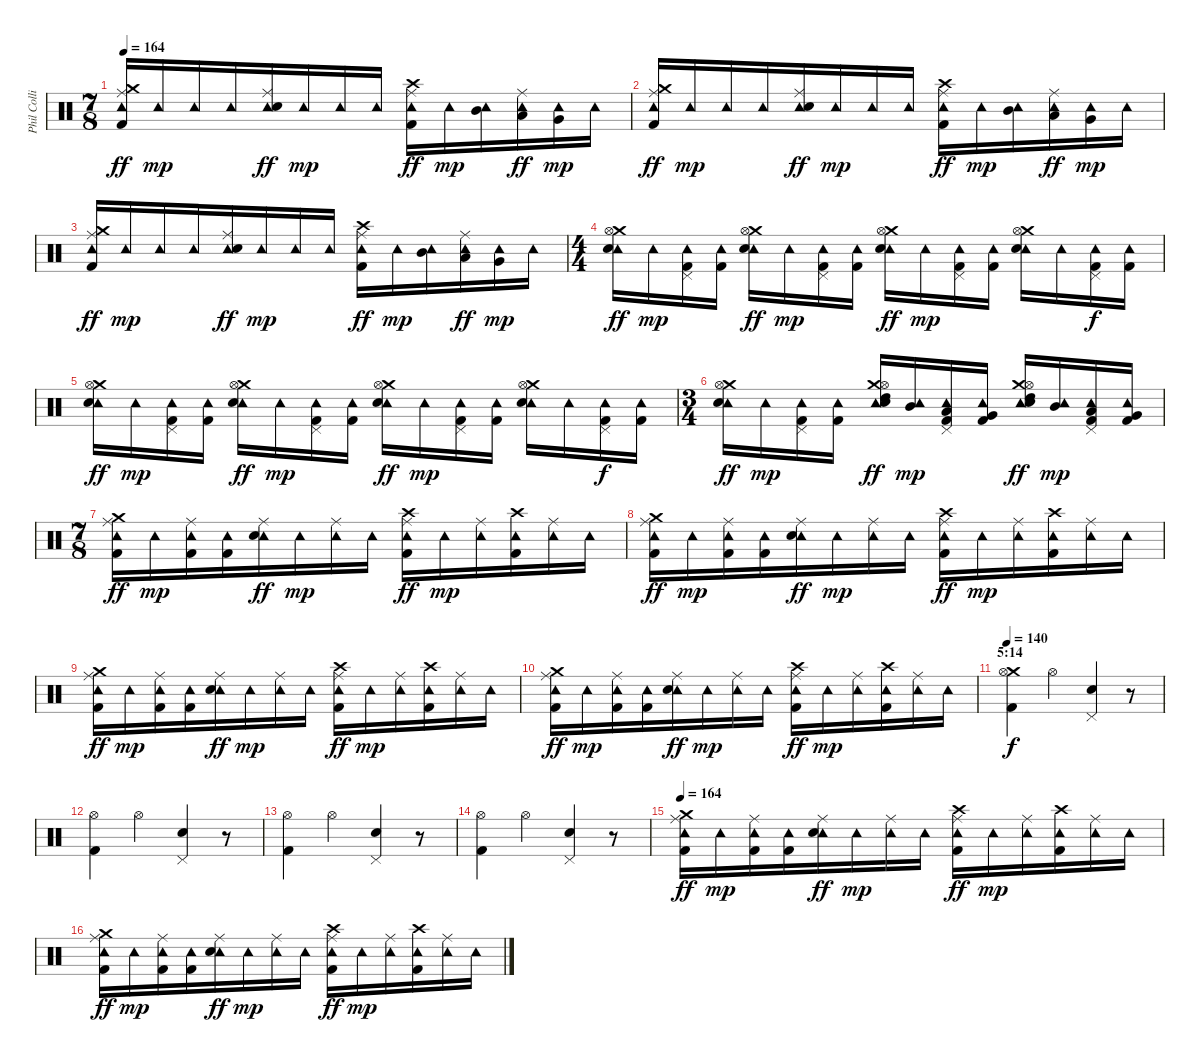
\track ("Phil Collins (drums)" "Phil Colli") {instrument percussion}
\staff {score}
\articulation defaults
\ts (7 8)
\tempo 164
\clef neutral
\ks c
("Tambourine (hit)" "Ride (middle)" "Crash medium (hit)" "Kick (hit) 2").16{dy ff} "Tambourine (hit)".16{dy mp} "Tambourine (hit)".16 "Tambourine (hit)".16 ("Tambourine (hit)" "Ride (middle)" "Electric Snare (hit)").16{dy ff} "Tambourine (hit)".16{dy mp} "Tambourine (hit)".16 "Tambourine (hit)".16 ("Tambourine (hit)" "Ride (middle)" "Crash high (hit)" "Kick (hit) 2").16{dy ff} "Tambourine (hit)".16{dy mp} ("Tambourine (hit)" "Mid Tom (hit)").16 ("Tambourine (hit)" "Ride (middle)" "Low Tom (hit)").16{dy ff} ("Tambourine (hit)" "Very Low Tom (hit)").16{dy mp} "Tambourine (hit)".16 |
("Tambourine (hit)" "Ride (middle)" "Crash medium (hit)" "Kick (hit) 2").16{dy ff} "Tambourine (hit)".16{dy mp} "Tambourine (hit)".16 "Tambourine (hit)".16 ("Tambourine (hit)" "Ride (middle)" "Electric Snare (hit)").16{dy ff} "Tambourine (hit)".16{dy mp} "Tambourine (hit)".16 "Tambourine (hit)".16 ("Tambourine (hit)" "Ride (middle)" "Crash high (hit)" "Kick (hit) 2").16{dy ff} "Tambourine (hit)".16{dy mp} ("Tambourine (hit)" "Mid Tom (hit)").16 ("Tambourine (hit)" "Ride (middle)" "Low Tom (hit)").16{dy ff} ("Tambourine (hit)" "Very Low Tom (hit)").16{dy mp} "Tambourine (hit)".16 |
("Tambourine (hit)" "Ride (middle)" "Crash medium (hit)" "Kick (hit) 2").16{dy ff} "Tambourine (hit)".16{dy mp} "Tambourine (hit)".16 "Tambourine (hit)".16 ("Tambourine (hit)" "Ride (middle)" "Electric Snare (hit)").16{dy ff} "Tambourine (hit)".16{dy mp} "Tambourine (hit)".16 "Tambourine (hit)".16 ("Tambourine (hit)" "Ride (middle)" "Crash high (hit)" "Kick (hit) 2").16{dy ff} "Tambourine (hit)".16{dy mp} ("Tambourine (hit)" "Mid Tom (hit)").16 ("Tambourine (hit)" "Ride (middle)" "Low Tom (hit)").16{dy ff} ("Tambourine (hit)" "Very Low Tom (hit)").16{dy mp} "Tambourine (hit)".16 |
\ts (4 4)
("Tambourine (hit)" "Crash medium (hit)" "Hi-Hat (open)" "Electric Snare (hit)").16{dy ff} "Tambourine (hit)".16{dy mp} ("Tambourine (hit)" "Pedal Hi-Hat (hit)" "Kick (hit) 2").16 ("Tambourine (hit)" "Kick (hit) 2").16 ("Tambourine (hit)" "Crash medium (hit)" "Hi-Hat (open)" "Electric Snare (hit)").16{dy ff} "Tambourine (hit)".16{dy mp} ("Tambourine (hit)" "Pedal Hi-Hat (hit)" "Kick (hit) 2").16 ("Tambourine (hit)" "Kick (hit) 2").16 ("Tambourine (hit)" "Crash medium (hit)" "Hi-Hat (open)" "Electric Snare (hit)").16{dy ff} "Tambourine (hit)".16{dy mp} ("Tambourine (hit)" "Pedal Hi-Hat (hit)" "Kick (hit) 2").16 ("Tambourine (hit)" "Kick (hit) 2").16 ("Tambourine (hit)" "Crash medium (hit)" "Hi-Hat (open)" "Electric Snare (hit)").16 "Tambourine (hit)".16 ("Tambourine (hit)" "Pedal Hi-Hat (hit)" "Kick (hit) 2").16{dy f} ("Tambourine (hit)" "Kick (hit) 2").16 |
("Tambourine (hit)" "Crash medium (hit)" "Hi-Hat (open)" "Electric Snare (hit)").16{dy ff} "Tambourine (hit)".16{dy mp} ("Tambourine (hit)" "Pedal Hi-Hat (hit)" "Kick (hit) 2").16 ("Tambourine (hit)" "Kick (hit) 2").16 ("Tambourine (hit)" "Crash medium (hit)" "Hi-Hat (open)" "Electric Snare (hit)").16{dy ff} "Tambourine (hit)".16{dy mp} ("Tambourine (hit)" "Pedal Hi-Hat (hit)" "Kick (hit) 2").16 ("Tambourine (hit)" "Kick (hit) 2").16 ("Tambourine (hit)" "Crash medium (hit)" "Hi-Hat (open)" "Electric Snare (hit)").16{dy ff} "Tambourine (hit)".16{dy mp} ("Tambourine (hit)" "Pedal Hi-Hat (hit)" "Kick (hit) 2").16 ("Tambourine (hit)" "Kick (hit) 2").16 ("Tambourine (hit)" "Crash medium (hit)" "Hi-Hat (open)" "Electric Snare (hit)").16 "Tambourine (hit)".16 ("Tambourine (hit)" "Pedal Hi-Hat (hit)" "Kick (hit) 2").16{dy f} ("Tambourine (hit)" "Kick (hit) 2").16 |
\ts (3 4)
("Tambourine (hit)" "Crash medium (hit)" "Hi-Hat (open)" "Electric Snare (hit)").16{dy ff} "Tambourine (hit)".16{dy mp} ("Tambourine (hit)" "Pedal Hi-Hat (hit)" "Kick (hit) 2").16 ("Tambourine (hit)" "Kick (hit) 2").16 ("High Tom (hit)" "Tambourine (hit)" "Crash medium (hit)" "Hi-Hat (open)" "Electric Snare (hit)").16{dy ff} ("Mid Tom (hit)" "Tambourine (hit)").16{dy mp} ("Low Tom (hit)" "Tambourine (hit)" "Pedal Hi-Hat (hit)" "Kick (hit) 2").16 ("Very Low Tom (hit)" "Tambourine (hit)" "Kick (hit) 2").16 ("High Tom (hit)" "Tambourine (hit)" "Crash medium (hit)" "Hi-Hat (open)" "Electric Snare (hit)").16{dy ff} ("Mid Tom (hit)" "Tambourine (hit)").16{dy mp} ("Low Tom (hit)" "Tambourine (hit)" "Pedal Hi-Hat (hit)" "Kick (hit) 2").16 ("Very Low Tom (hit)" "Tambourine (hit)" "Kick (hit) 2").16 |
\ts (7 8)
("Tambourine (hit)" "Ride (middle)" "Crash medium (hit)" "Kick (hit) 2").16{dy ff} "Tambourine (hit)".16{dy mp} ("Tambourine (hit)" "Ride (middle)" "Kick (hit) 2").16 ("Tambourine (hit)" "Kick (hit) 2").16 ("Tambourine (hit)" "Ride (middle)" "Electric Snare (hit)").16{dy ff} "Tambourine (hit)".16{dy mp} ("Tambourine (hit)" "Ride (middle)").16 "Tambourine (hit)".16 ("Tambourine (hit)" "Ride (middle)" "Crash high (hit)" "Kick (hit) 2").16{dy ff} "Tambourine (hit)".16{dy mp} ("Tambourine (hit)" "Ride (middle)").16 ("Tambourine (hit)" "Crash high (hit)" "Kick (hit) 2").16 ("Tambourine (hit)" "Ride (middle)").16 "Tambourine (hit)".16 |
("Tambourine (hit)" "Ride (middle)" "Crash medium (hit)" "Kick (hit) 2").16{dy ff} "Tambourine (hit)".16{dy mp} ("Tambourine (hit)" "Ride (middle)" "Kick (hit) 2").16 ("Tambourine (hit)" "Kick (hit) 2").16 ("Tambourine (hit)" "Ride (middle)" "Electric Snare (hit)").16{dy ff} "Tambourine (hit)".16{dy mp} ("Tambourine (hit)" "Ride (middle)").16 "Tambourine (hit)".16 ("Tambourine (hit)" "Ride (middle)" "Crash high (hit)" "Kick (hit) 2").16{dy ff} "Tambourine (hit)".16{dy mp} ("Tambourine (hit)" "Ride (middle)").16 ("Tambourine (hit)" "Crash high (hit)" "Kick (hit) 2").16 ("Tambourine (hit)" "Ride (middle)").16 "Tambourine (hit)".16 |
("Tambourine (hit)" "Ride (middle)" "Crash medium (hit)" "Kick (hit) 2").16{dy ff} "Tambourine (hit)".16{dy mp} ("Tambourine (hit)" "Ride (middle)" "Kick (hit) 2").16 ("Tambourine (hit)" "Kick (hit) 2").16 ("Tambourine (hit)" "Ride (middle)" "Electric Snare (hit)").16{dy ff} "Tambourine (hit)".16{dy mp} ("Tambourine (hit)" "Ride (middle)").16 "Tambourine (hit)".16 ("Tambourine (hit)" "Ride (middle)" "Crash high (hit)" "Kick (hit) 2").16{dy ff} "Tambourine (hit)".16{dy mp} ("Tambourine (hit)" "Ride (middle)").16 ("Tambourine (hit)" "Crash high (hit)" "Kick (hit) 2").16 ("Tambourine (hit)" "Ride (middle)").16 "Tambourine (hit)".16 |
("Tambourine (hit)" "Ride (middle)" "Crash medium (hit)" "Kick (hit) 2").16{dy ff} "Tambourine (hit)".16{dy mp} ("Tambourine (hit)" "Ride (middle)" "Kick (hit) 2").16 ("Tambourine (hit)" "Kick (hit) 2").16 ("Tambourine (hit)" "Ride (middle)" "Electric Snare (hit)").16{dy ff} "Tambourine (hit)".16{dy mp} ("Tambourine (hit)" "Ride (middle)").16 "Tambourine (hit)".16 ("Tambourine (hit)" "Ride (middle)" "Crash high (hit)" "Kick (hit) 2").16{dy ff} "Tambourine (hit)".16{dy mp} ("Tambourine (hit)" "Ride (middle)").16 ("Tambourine (hit)" "Crash high (hit)" "Kick (hit) 2").16 ("Tambourine (hit)" "Ride (middle)").16 "Tambourine (hit)".16 |
\section ("" "5:14")
\tempo 140
("Crash medium (hit)" "Hi-Hat (open)" "Kick (hit) 2").4{dy f} "Hi-Hat (open)".4 ("Pedal Hi-Hat (hit)" "Electric Snare (hit)").4 r.8 |
("Hi-Hat (open)" "Kick (hit) 2").4 "Hi-Hat (open)".4 ("Pedal Hi-Hat (hit)" "Electric Snare (hit)").4 r.8 |
("Hi-Hat (open)" "Kick (hit) 2").4 "Hi-Hat (open)".4 ("Pedal Hi-Hat (hit)" "Electric Snare (hit)").4 r.8 |
("Hi-Hat (open)" "Kick (hit) 2").4 "Hi-Hat (open)".4 ("Pedal Hi-Hat (hit)" "Electric Snare (hit)").4 r.8 |
\tempo 164
("Tambourine (hit)" "Ride (middle)" "Crash medium (hit)" "Kick (hit) 2").16{dy ff} "Tambourine (hit)".16{dy mp} ("Tambourine (hit)" "Ride (middle)" "Kick (hit) 2").16 ("Tambourine (hit)" "Kick (hit) 2").16 ("Tambourine (hit)" "Ride (middle)" "Electric Snare (hit)").16{dy ff} "Tambourine (hit)".16{dy mp} ("Tambourine (hit)" "Ride (middle)").16 "Tambourine (hit)".16 ("Tambourine (hit)" "Ride (middle)" "Crash high (hit)" "Kick (hit) 2").16{dy ff} "Tambourine (hit)".16{dy mp} ("Tambourine (hit)" "Ride (middle)").16 ("Tambourine (hit)" "Crash high (hit)" "Kick (hit) 2").16 ("Tambourine (hit)" "Ride (middle)").16 "Tambourine (hit)".16 |
("Tambourine (hit)" "Ride (middle)" "Crash medium (hit)" "Kick (hit) 2").16{dy ff} "Tambourine (hit)".16{dy mp} ("Tambourine (hit)" "Ride (middle)" "Kick (hit) 2").16 ("Tambourine (hit)" "Kick (hit) 2").16 ("Tambourine (hit)" "Ride (middle)" "Electric Snare (hit)").16{dy ff} "Tambourine (hit)".16{dy mp} ("Tambourine (hit)" "Ride (middle)").16 "Tambourine (hit)".16 ("Tambourine (hit)" "Ride (middle)" "Crash high (hit)" "Kick (hit) 2").16{dy ff} "Tambourine (hit)".16{dy mp} ("Tambourine (hit)" "Ride (middle)").16 ("Tambourine (hit)" "Crash high (hit)" "Kick (hit) 2").16 ("Tambourine (hit)" "Ride (middle)").16 "Tambourine (hit)".16
